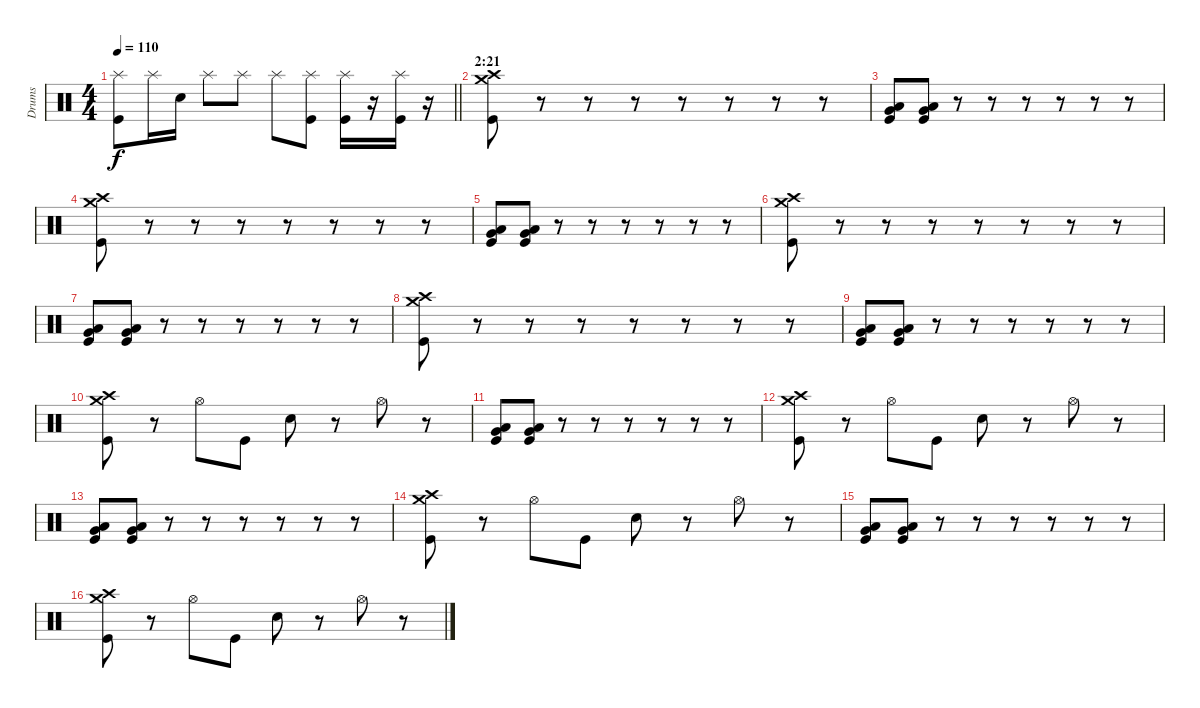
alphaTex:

\track ("Drums" "Drums") {instrument percussion}
\staff {score}
\articulation defaults
\ts (4 4)
\tempo 110
\clef neutral
\barLineRight lightlight
\ks c
("Splash (hit)" "Kick (hit)").8{dy f} "Splash (hit)".16 "Snare (hit) 2".16 "Splash (hit)".8 "Splash (hit)".8 "Splash (hit)".8 ("Splash (hit)" "Kick (hit)").8 ("Splash (hit)" "Kick (hit)").16 r.16 ("Splash (hit)" "Kick (hit)").16 r.16 |
\section ("" "2:21")
("Crash high (hit)" "Crash medium (hit)" "Kick (hit)").8 r.8 r.8 r.8 r.8 r.8 r.8 r.8 |
("Very Low Tom (hit)" "Low Tom (hit)" "Kick (hit)").8 ("Very Low Tom (hit)" "Low Tom (hit)" "Kick (hit)").8 r.8 r.8 r.8 r.8 r.8 r.8 |
("Crash high (hit)" "Crash medium (hit)" "Kick (hit)").8 r.8 r.8 r.8 r.8 r.8 r.8 r.8 |
("Very Low Tom (hit)" "Low Tom (hit)" "Kick (hit)").8 ("Very Low Tom (hit)" "Low Tom (hit)" "Kick (hit)").8 r.8 r.8 r.8 r.8 r.8 r.8 |
("Crash high (hit)" "Crash medium (hit)" "Kick (hit)").8 r.8 r.8 r.8 r.8 r.8 r.8 r.8 |
("Very Low Tom (hit)" "Low Tom (hit)" "Kick (hit)").8 ("Very Low Tom (hit)" "Low Tom (hit)" "Kick (hit)").8 r.8 r.8 r.8 r.8 r.8 r.8 |
("Crash high (hit)" "Crash medium (hit)" "Kick (hit)").8 r.8 r.8 r.8 r.8 r.8 r.8 r.8 |
("Very Low Tom (hit)" "Low Tom (hit)" "Kick (hit)").8 ("Very Low Tom (hit)" "Low Tom (hit)" "Kick (hit)").8 r.8 r.8 r.8 r.8 r.8 r.8 |
("Crash high (hit)" "Crash medium (hit)" "Kick (hit)").8 r.8 "Hi-Hat (open)".8 "Kick (hit)".8 "Snare (hit) 2".8 r.8 "Hi-Hat (open)".8 r.8 |
("Very Low Tom (hit)" "Low Tom (hit)" "Kick (hit)").8 ("Very Low Tom (hit)" "Low Tom (hit)" "Kick (hit)").8 r.8 r.8 r.8 r.8 r.8 r.8 |
("Crash high (hit)" "Crash medium (hit)" "Kick (hit)").8 r.8 "Hi-Hat (open)".8 "Kick (hit)".8 "Snare (hit) 2".8 r.8 "Hi-Hat (open)".8 r.8 |
("Very Low Tom (hit)" "Low Tom (hit)" "Kick (hit)").8 ("Very Low Tom (hit)" "Low Tom (hit)" "Kick (hit)").8 r.8 r.8 r.8 r.8 r.8 r.8 |
("Crash high (hit)" "Crash medium (hit)" "Kick (hit)").8 r.8 "Hi-Hat (open)".8 "Kick (hit)".8 "Snare (hit) 2".8 r.8 "Hi-Hat (open)".8 r.8 |
("Very Low Tom (hit)" "Low Tom (hit)" "Kick (hit)").8 ("Very Low Tom (hit)" "Low Tom (hit)" "Kick (hit)").8 r.8 r.8 r.8 r.8 r.8 r.8 |
("Crash high (hit)" "Crash medium (hit)" "Kick (hit)").8 r.8 "Hi-Hat (open)".8 "Kick (hit)".8 "Snare (hit) 2".8 r.8 "Hi-Hat (open)".8 r.8
